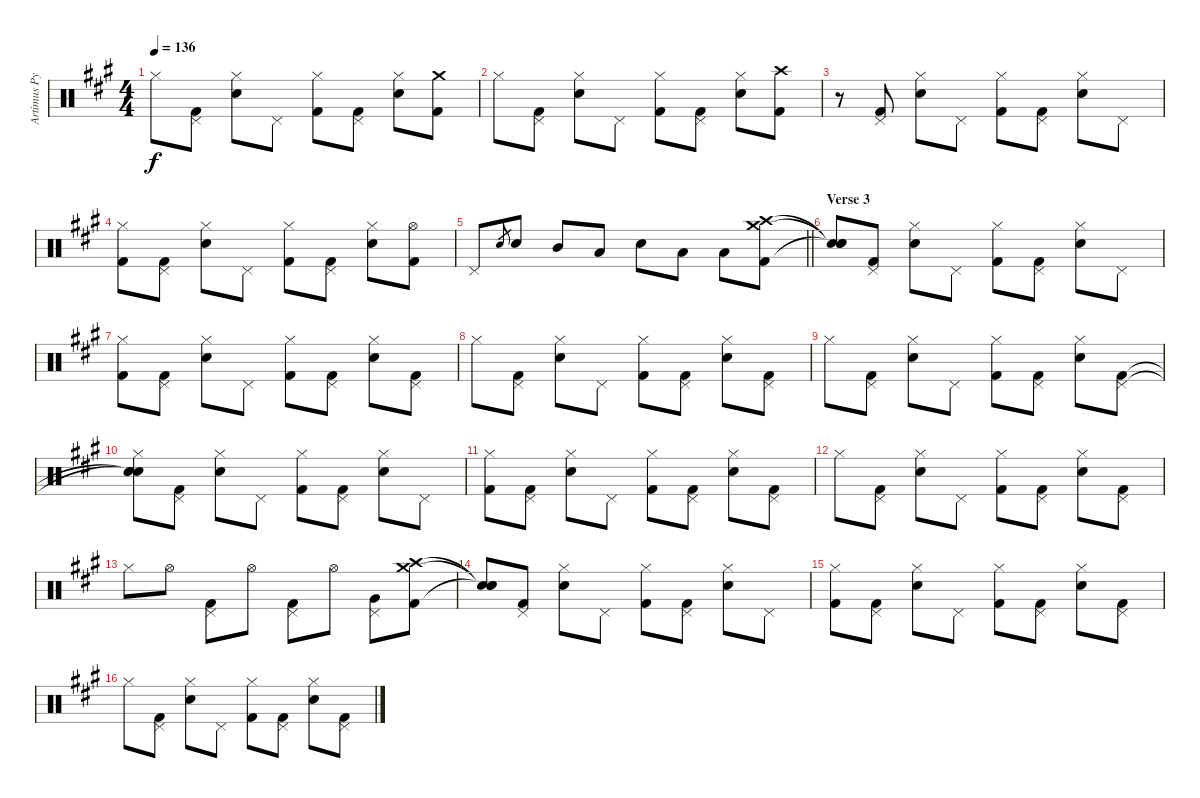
\track ("Artimus Pyle - Drums" "Artimus Py") {instrument percussion}
\staff {score}
\articulation defaults
\ts (4 4)
\tempo 136
\clef neutral
\ks a "Hi-Hat (closed)".8{dy f}
("Pedal Hi-Hat (hit)" "Kick (hit) 2").8 ("Snare (hit) 2" "Hi-Hat (closed)").8 "Pedal Hi-Hat (hit)".8 ("Hi-Hat (closed)" "Kick (hit) 2").8 ("Pedal Hi-Hat (hit)" "Kick (hit) 2").8 ("Snare (hit) 2" "Hi-Hat (closed)").8 ("Crash medium (hit)" "Kick (hit) 2").8 |
"Hi-Hat (closed)".8 ("Pedal Hi-Hat (hit)" "Kick (hit) 2").8 ("Snare (hit) 2" "Hi-Hat (closed)").8 "Pedal Hi-Hat (hit)".8 ("Hi-Hat (closed)" "Kick (hit) 2").8 ("Pedal Hi-Hat (hit)" "Kick (hit) 2").8 ("Snare (hit) 2" "Hi-Hat (closed)").8 ("Crash high (hit)" "Kick (hit) 2").8 |
r.8 ("Pedal Hi-Hat (hit)" "Kick (hit) 2").8 ("Snare (hit) 2" "Hi-Hat (closed)").8 "Pedal Hi-Hat (hit)".8 ("Hi-Hat (closed)" "Kick (hit) 2").8 ("Pedal Hi-Hat (hit)" "Kick (hit) 2").8 ("Snare (hit) 2" "Hi-Hat (closed)").8 "Pedal Hi-Hat (hit)".8 |
("Hi-Hat (closed)" "Kick (hit) 2").8 ("Pedal Hi-Hat (hit)" "Kick (hit) 2").8 ("Snare (hit) 2" "Hi-Hat (closed)").8 "Pedal Hi-Hat (hit)".8 ("Hi-Hat (closed)" "Kick (hit) 2").8 ("Pedal Hi-Hat (hit)" "Kick (hit) 2").8 ("Snare (hit) 2" "Hi-Hat (closed)").8 ("Hi-Hat (open)" "Kick (hit) 2").8 |
\barLineRight lightlight "Pedal Hi-Hat (hit)".8 "Snare (hit) 2".8{gr} "Snare (hit) 2".8 "Mid Tom (hit)".8 "Low Tom (hit)".8 "Snare (hit) 2".8 "Low Floor Tom (hit)".8 "Low Floor Tom (hit)".8
("Crash medium (hit)" "Crash high (hit)" "Kick (hit) 2").8 |
\section ("" "Verse 3")
("Snare (hit)"{t} "Snare (hit)"{t} "Snare (hit)"{t}).8 ("Pedal Hi-Hat (hit)" "Kick (hit) 2").8 ("Snare (hit) 2" "Hi-Hat (closed)").8 "Pedal Hi-Hat (hit)".8 ("Hi-Hat (closed)" "Kick (hit) 2").8 ("Pedal Hi-Hat (hit)" "Kick (hit) 2").8 ("Snare (hit) 2" "Hi-Hat (closed)").8 "Pedal Hi-Hat (hit)".8 |
("Hi-Hat (closed)" "Kick (hit) 2").8 ("Pedal Hi-Hat (hit)" "Kick (hit) 2").8 ("Snare (hit) 2" "Hi-Hat (closed)").8 "Pedal Hi-Hat (hit)".8 ("Hi-Hat (closed)" "Kick (hit) 2").8 ("Pedal Hi-Hat (hit)" "Kick (hit) 2").8 ("Snare (hit) 2" "Hi-Hat (closed)").8 ("Pedal Hi-Hat (hit)" "Kick (hit) 2").8 |
"Hi-Hat (closed)".8 ("Pedal Hi-Hat (hit)" "Kick (hit) 2").8 ("Snare (hit) 2" "Hi-Hat (closed)").8 "Pedal Hi-Hat (hit)".8 ("Hi-Hat (closed)" "Kick (hit) 2").8 ("Pedal Hi-Hat (hit)" "Kick (hit) 2").8 ("Snare (hit) 2" "Hi-Hat (closed)").8 ("Pedal Hi-Hat (hit)" "Kick (hit) 2").8 |
"Hi-Hat (closed)".8 ("Pedal Hi-Hat (hit)" "Kick (hit) 2").8 ("Snare (hit) 2" "Hi-Hat (closed)").8 "Pedal Hi-Hat (hit)".8 ("Hi-Hat (closed)" "Kick (hit) 2").8 ("Pedal Hi-Hat (hit)" "Kick (hit) 2").8 ("Snare (hit) 2" "Hi-Hat (closed)").8 ("Pedal Hi-Hat (hit)" "Kick (hit) 2").8 |
("Snare (hit)"{t} "Snare (hit)"{t} "Hi-Hat (closed)" "Snare (hit)").8 ("Pedal Hi-Hat (hit)" "Kick (hit) 2").8 ("Snare (hit) 2" "Hi-Hat (closed)").8 "Pedal Hi-Hat (hit)".8 ("Hi-Hat (closed)" "Kick (hit) 2").8 ("Pedal Hi-Hat (hit)" "Kick (hit) 2").8 ("Snare (hit) 2" "Hi-Hat (closed)").8 "Pedal Hi-Hat (hit)".8 |
("Hi-Hat (closed)" "Kick (hit) 2").8 ("Pedal Hi-Hat (hit)" "Kick (hit) 2").8 ("Snare (hit) 2" "Hi-Hat (closed)").8 "Pedal Hi-Hat (hit)".8 ("Hi-Hat (closed)" "Kick (hit) 2").8 ("Pedal Hi-Hat (hit)" "Kick (hit) 2").8 ("Snare (hit) 2" "Hi-Hat (closed)").8 ("Pedal Hi-Hat (hit)" "Kick (hit) 2").8 |
"Hi-Hat (closed)".8 ("Pedal Hi-Hat (hit)" "Kick (hit) 2").8 ("Snare (hit) 2" "Hi-Hat (closed)").8 "Pedal Hi-Hat (hit)".8 ("Hi-Hat (closed)" "Kick (hit) 2").8 ("Pedal Hi-Hat (hit)" "Kick (hit) 2").8 ("Snare (hit) 2" "Hi-Hat (closed)").8 ("Pedal Hi-Hat (hit)" "Kick (hit) 2").8 |
"Hi-Hat (closed)".8 "Hi-Hat (open)".8 ("Pedal Hi-Hat (hit)" "Kick (hit) 2").8 "Hi-Hat (open)".8 ("Pedal Hi-Hat (hit)" "Kick (hit) 2").8 "Hi-Hat (open)".8 ("Pedal Hi-Hat (hit)" "Very Low Tom (hit)").8 ("Crash medium (hit)" "Crash high (hit)" "Kick (hit) 2").8 |
("Snare (hit)"{t} "Snare (hit)"{t} "Snare (hit)"{t}).8 ("Pedal Hi-Hat (hit)" "Kick (hit) 2").8 ("Snare (hit) 2" "Hi-Hat (closed)").8 "Pedal Hi-Hat (hit)".8 ("Hi-Hat (closed)" "Kick (hit) 2").8 ("Pedal Hi-Hat (hit)" "Kick (hit) 2").8 ("Snare (hit) 2" "Hi-Hat (closed)").8 "Pedal Hi-Hat (hit)".8 |
("Hi-Hat (closed)" "Kick (hit) 2").8 ("Pedal Hi-Hat (hit)" "Kick (hit) 2").8 ("Snare (hit) 2" "Hi-Hat (closed)").8 "Pedal Hi-Hat (hit)".8 ("Hi-Hat (closed)" "Kick (hit) 2").8 ("Pedal Hi-Hat (hit)" "Kick (hit) 2").8 ("Snare (hit) 2" "Hi-Hat (closed)").8 ("Pedal Hi-Hat (hit)" "Kick (hit) 2").8 |
"Hi-Hat (closed)".8 ("Pedal Hi-Hat (hit)" "Kick (hit) 2").8 ("Snare (hit) 2" "Hi-Hat (closed)").8 "Pedal Hi-Hat (hit)".8 ("Hi-Hat (closed)" "Kick (hit) 2").8 ("Pedal Hi-Hat (hit)" "Kick (hit) 2").8 ("Snare (hit) 2" "Hi-Hat (closed)").8 ("Pedal Hi-Hat (hit)" "Kick (hit) 2").8
